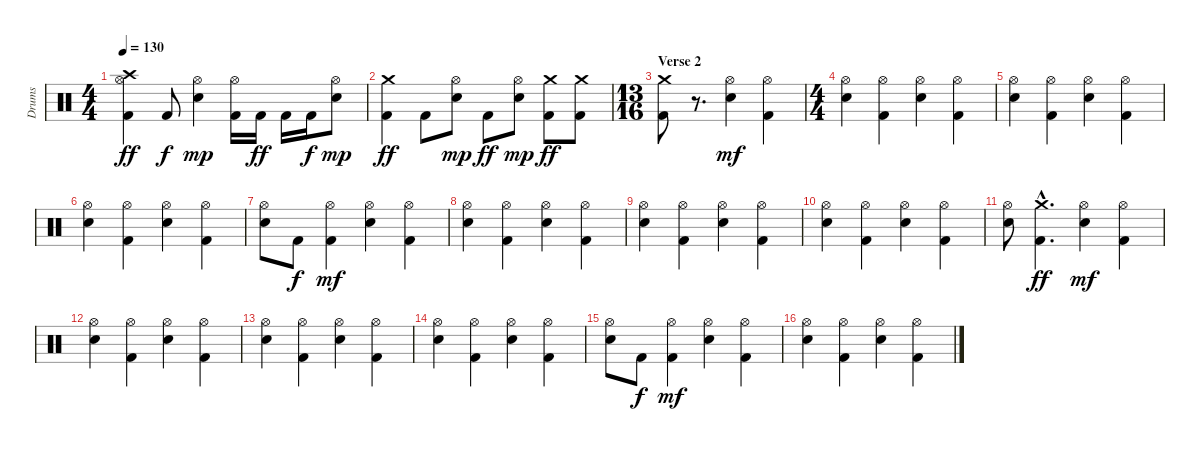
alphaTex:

\track ("Drums" "Drums") {instrument percussion}
\staff {score}
\articulation defaults
\ts (4 4)
\tempo 130
\clef neutral
\ks c
("Kick (hit) 2" "Hi-Hat (open)" "Crash high (hit)").4{dy ff} "Kick (hit) 2".8{dy f} ("Hi-Hat (open)" "Snare (hit) 2").4{dy mp} ("Kick (hit) 2" "Hi-Hat (open)").16 "Kick (hit) 2".16{dy ff} "Kick (hit) 2".16 "Kick (hit) 2".16{dy f} ("Hi-Hat (open)" "Snare (hit) 2").8{dy mp} |
("Kick (hit) 2" "Crash medium (hit)").4{dy ff} "Kick (hit) 2".8 ("Hi-Hat (open)" "Snare (hit) 2").8{dy mp} "Kick (hit) 2".8{dy ff} ("Hi-Hat (open)" "Snare (hit) 2").8{dy mp} ("Kick (hit) 2" "Crash medium (hit)").8{dy ff} ("Kick (hit) 2" "Crash medium (hit)").8 |
\ts (13 16)
\section ("" "Verse 2")
("Kick (hit) 2" "Crash medium (hit)").8 r.8{d} ("Hi-Hat (open)" "Snare (hit) 2").4{dy mf} ("Kick (hit) 2" "Hi-Hat (open)").4 |
\ts (4 4)
("Hi-Hat (open)" "Snare (hit) 2").4 ("Kick (hit) 2" "Hi-Hat (open)").4 ("Hi-Hat (open)" "Snare (hit) 2").4 ("Kick (hit) 2" "Hi-Hat (open)").4 |
("Hi-Hat (open)" "Snare (hit) 2").4 ("Kick (hit) 2" "Hi-Hat (open)").4 ("Hi-Hat (open)" "Snare (hit) 2").4 ("Kick (hit) 2" "Hi-Hat (open)").4 |
("Hi-Hat (open)" "Snare (hit) 2").4 ("Kick (hit) 2" "Hi-Hat (open)").4 ("Hi-Hat (open)" "Snare (hit) 2").4 ("Kick (hit) 2" "Hi-Hat (open)").4 |
("Hi-Hat (open)" "Snare (hit) 2").8 "Kick (hit) 2".8{dy f} ("Kick (hit) 2" "Hi-Hat (open)").4{dy mf} ("Hi-Hat (open)" "Snare (hit) 2").4 ("Kick (hit) 2" "Hi-Hat (open)").4 |
("Hi-Hat (open)" "Snare (hit) 2").4 ("Kick (hit) 2" "Hi-Hat (open)").4 ("Hi-Hat (open)" "Snare (hit) 2").4 ("Kick (hit) 2" "Hi-Hat (open)").4 |
("Hi-Hat (open)" "Snare (hit) 2").4 ("Kick (hit) 2" "Hi-Hat (open)").4 ("Hi-Hat (open)" "Snare (hit) 2").4 ("Kick (hit) 2" "Hi-Hat (open)").4 |
("Hi-Hat (open)" "Snare (hit) 2").4 ("Kick (hit) 2" "Hi-Hat (open)").4 ("Hi-Hat (open)" "Snare (hit) 2").4 ("Kick (hit) 2" "Hi-Hat (open)").4 |
("Hi-Hat (open)" "Snare (hit) 2").8 ("Kick (hit) 2"{hac} "Crash medium (hit)"{hac}).4{d dy ff} ("Hi-Hat (open)" "Snare (hit) 2").4{dy mf} ("Kick (hit) 2" "Hi-Hat (open)").4 |
("Hi-Hat (open)" "Snare (hit) 2").4 ("Kick (hit) 2" "Hi-Hat (open)").4 ("Hi-Hat (open)" "Snare (hit) 2").4 ("Kick (hit) 2" "Hi-Hat (open)").4 |
("Hi-Hat (open)" "Snare (hit) 2").4 ("Kick (hit) 2" "Hi-Hat (open)").4 ("Hi-Hat (open)" "Snare (hit) 2").4 ("Kick (hit) 2" "Hi-Hat (open)").4 |
("Hi-Hat (open)" "Snare (hit) 2").4 ("Kick (hit) 2" "Hi-Hat (open)").4 ("Hi-Hat (open)" "Snare (hit) 2").4 ("Kick (hit) 2" "Hi-Hat (open)").4 |
("Hi-Hat (open)" "Snare (hit) 2").8 "Kick (hit) 2".8{dy f} ("Kick (hit) 2" "Hi-Hat (open)").4{dy mf} ("Hi-Hat (open)" "Snare (hit) 2").4 ("Kick (hit) 2" "Hi-Hat (open)").4 |
("Hi-Hat (open)" "Snare (hit) 2").4 ("Kick (hit) 2" "Hi-Hat (open)").4 ("Hi-Hat (open)" "Snare (hit) 2").4 ("Kick (hit) 2" "Hi-Hat (open)").4
